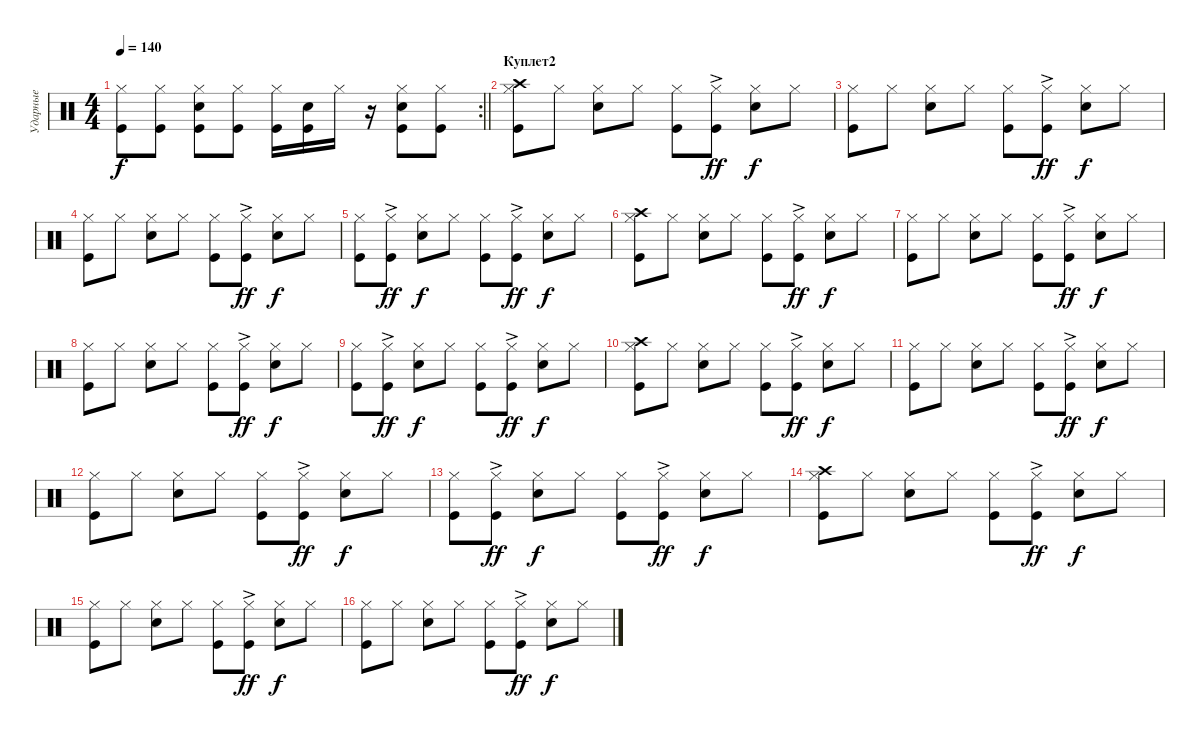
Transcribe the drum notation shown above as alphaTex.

\track ("Ударные" "Ударные") {instrument percussion}
\staff {score}
\articulation defaults
\rc 2
\ts (4 4)
\tempo 140
\clef neutral
\barLineRight lightlight
\ks c
("Hi-Hat (closed)" "Kick (hit)").8{dy f} ("Hi-Hat (closed)" "Kick (hit)").8 ("Hi-Hat (closed)" "Kick (hit)" "Snare (hit) 2").8 ("Hi-Hat (closed)" "Kick (hit)").8 ("Hi-Hat (closed)" "Kick (hit)").16 ("Kick (hit)" "Snare (hit) 2").16 "Hi-Hat (closed)".16 r.16 ("Hi-Hat (closed)" "Kick (hit)" "Snare (hit) 2").8 ("Hi-Hat (closed)" "Kick (hit)").8 |
\section ("" "Куплет2")
("Hi-Hat (closed)" "Kick (hit)" "Crash high (hit)").8 "Hi-Hat (closed)".8 ("Hi-Hat (closed)" "Snare (hit) 2").8 "Hi-Hat (closed)".8 ("Hi-Hat (closed)" "Kick (hit)").8 ("Hi-Hat (closed)" "Kick (hit)"{ac}).8{dy ff} ("Hi-Hat (closed)" "Snare (hit) 2").8{dy f} "Hi-Hat (closed)".8 |
("Hi-Hat (closed)" "Kick (hit)").8 "Hi-Hat (closed)".8 ("Hi-Hat (closed)" "Snare (hit) 2").8 "Hi-Hat (closed)".8 ("Hi-Hat (closed)" "Kick (hit)").8 ("Hi-Hat (closed)" "Kick (hit)"{ac}).8{dy ff} ("Hi-Hat (closed)" "Snare (hit) 2").8{dy f} "Hi-Hat (closed)".8 |
("Hi-Hat (closed)" "Kick (hit)").8 "Hi-Hat (closed)".8 ("Hi-Hat (closed)" "Snare (hit) 2").8 "Hi-Hat (closed)".8 ("Hi-Hat (closed)" "Kick (hit)").8 ("Hi-Hat (closed)" "Kick (hit)"{ac}).8{dy ff} ("Hi-Hat (closed)" "Snare (hit) 2").8{dy f} "Hi-Hat (closed)".8 |
("Hi-Hat (closed)" "Kick (hit)").8 ("Hi-Hat (closed)" "Kick (hit)"{ac}).8{dy ff} ("Hi-Hat (closed)" "Snare (hit) 2").8{dy f} "Hi-Hat (closed)".8 ("Hi-Hat (closed)" "Kick (hit)").8 ("Hi-Hat (closed)" "Kick (hit)"{ac}).8{dy ff} ("Hi-Hat (closed)" "Snare (hit) 2").8{dy f} "Hi-Hat (closed)".8 |
("Hi-Hat (closed)" "Kick (hit)" "Crash high (hit)").8 "Hi-Hat (closed)".8 ("Hi-Hat (closed)" "Snare (hit) 2").8 "Hi-Hat (closed)".8 ("Hi-Hat (closed)" "Kick (hit)").8 ("Hi-Hat (closed)" "Kick (hit)"{ac}).8{dy ff} ("Hi-Hat (closed)" "Snare (hit) 2").8{dy f} "Hi-Hat (closed)".8 |
("Hi-Hat (closed)" "Kick (hit)").8 "Hi-Hat (closed)".8 ("Hi-Hat (closed)" "Snare (hit) 2").8 "Hi-Hat (closed)".8 ("Hi-Hat (closed)" "Kick (hit)").8 ("Hi-Hat (closed)" "Kick (hit)"{ac}).8{dy ff} ("Hi-Hat (closed)" "Snare (hit) 2").8{dy f} "Hi-Hat (closed)".8 |
("Hi-Hat (closed)" "Kick (hit)").8 "Hi-Hat (closed)".8 ("Hi-Hat (closed)" "Snare (hit) 2").8 "Hi-Hat (closed)".8 ("Hi-Hat (closed)" "Kick (hit)").8 ("Hi-Hat (closed)" "Kick (hit)"{ac}).8{dy ff} ("Hi-Hat (closed)" "Snare (hit) 2").8{dy f} "Hi-Hat (closed)".8 |
("Hi-Hat (closed)" "Kick (hit)").8 ("Hi-Hat (closed)" "Kick (hit)"{ac}).8{dy ff} ("Hi-Hat (closed)" "Snare (hit) 2").8{dy f} "Hi-Hat (closed)".8 ("Hi-Hat (closed)" "Kick (hit)").8 ("Hi-Hat (closed)" "Kick (hit)"{ac}).8{dy ff} ("Hi-Hat (closed)" "Snare (hit) 2").8{dy f} "Hi-Hat (closed)".8 |
("Hi-Hat (closed)" "Kick (hit)" "Crash high (hit)").8 "Hi-Hat (closed)".8 ("Hi-Hat (closed)" "Snare (hit) 2").8 "Hi-Hat (closed)".8 ("Hi-Hat (closed)" "Kick (hit)").8 ("Hi-Hat (closed)" "Kick (hit)"{ac}).8{dy ff} ("Hi-Hat (closed)" "Snare (hit) 2").8{dy f} "Hi-Hat (closed)".8 |
("Hi-Hat (closed)" "Kick (hit)").8 "Hi-Hat (closed)".8 ("Hi-Hat (closed)" "Snare (hit) 2").8 "Hi-Hat (closed)".8 ("Hi-Hat (closed)" "Kick (hit)").8 ("Hi-Hat (closed)" "Kick (hit)"{ac}).8{dy ff} ("Hi-Hat (closed)" "Snare (hit) 2").8{dy f} "Hi-Hat (closed)".8 |
("Hi-Hat (closed)" "Kick (hit)").8 "Hi-Hat (closed)".8 ("Hi-Hat (closed)" "Snare (hit) 2").8 "Hi-Hat (closed)".8 ("Hi-Hat (closed)" "Kick (hit)").8 ("Hi-Hat (closed)" "Kick (hit)"{ac}).8{dy ff} ("Hi-Hat (closed)" "Snare (hit) 2").8{dy f} "Hi-Hat (closed)".8 |
("Hi-Hat (closed)" "Kick (hit)").8 ("Hi-Hat (closed)" "Kick (hit)"{ac}).8{dy ff} ("Hi-Hat (closed)" "Snare (hit) 2").8{dy f} "Hi-Hat (closed)".8 ("Hi-Hat (closed)" "Kick (hit)").8 ("Hi-Hat (closed)" "Kick (hit)"{ac}).8{dy ff} ("Hi-Hat (closed)" "Snare (hit) 2").8{dy f} "Hi-Hat (closed)".8 |
("Hi-Hat (closed)" "Kick (hit)" "Crash high (hit)").8 "Hi-Hat (closed)".8 ("Hi-Hat (closed)" "Snare (hit) 2").8 "Hi-Hat (closed)".8 ("Hi-Hat (closed)" "Kick (hit)").8 ("Hi-Hat (closed)" "Kick (hit)"{ac}).8{dy ff} ("Hi-Hat (closed)" "Snare (hit) 2").8{dy f} "Hi-Hat (closed)".8 |
("Hi-Hat (closed)" "Kick (hit)").8 "Hi-Hat (closed)".8 ("Hi-Hat (closed)" "Snare (hit) 2").8 "Hi-Hat (closed)".8 ("Hi-Hat (closed)" "Kick (hit)").8 ("Hi-Hat (closed)" "Kick (hit)"{ac}).8{dy ff} ("Hi-Hat (closed)" "Snare (hit) 2").8{dy f} "Hi-Hat (closed)".8 |
("Hi-Hat (closed)" "Kick (hit)").8 "Hi-Hat (closed)".8 ("Hi-Hat (closed)" "Snare (hit) 2").8 "Hi-Hat (closed)".8 ("Hi-Hat (closed)" "Kick (hit)").8 ("Hi-Hat (closed)" "Kick (hit)"{ac}).8{dy ff} ("Hi-Hat (closed)" "Snare (hit) 2").8{dy f} "Hi-Hat (closed)".8
